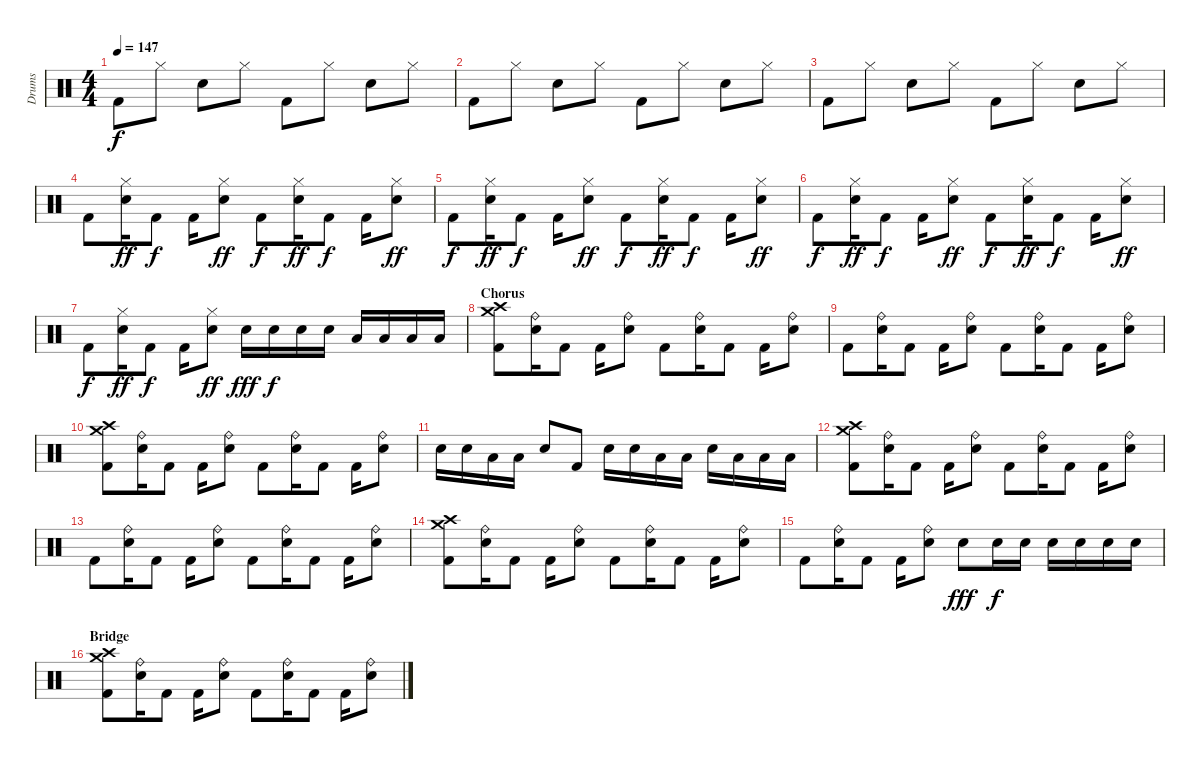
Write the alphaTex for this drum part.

\track ("Drums" "Drums") {instrument percussion}
\staff {score}
\articulation defaults
\ts (4 4)
\tempo 147
\clef neutral
\ks c "Kick (hit) 2".8{dy f} "Hi-Hat (closed)".8 "Electric Snare (hit)".8 "Hi-Hat (closed)".8 "Kick (hit) 2".8 "Hi-Hat (closed)".8 "Electric Snare (hit)".8 "Hi-Hat (closed)".8
|
"Kick (hit) 2".8 "Hi-Hat (closed)".8 "Electric Snare (hit)".8 "Hi-Hat (closed)".8 "Kick (hit) 2".8 "Hi-Hat (closed)".8 "Electric Snare (hit)".8 "Hi-Hat (closed)".8 |
"Kick (hit) 2".8 "Hi-Hat (closed)".8 "Electric Snare (hit)".8 "Hi-Hat (closed)".8 "Kick (hit) 2".8 "Hi-Hat (closed)".8 "Electric Snare (hit)".8 "Hi-Hat (closed)".8 |
"Kick (hit) 2".8 ("Hi-Hat (closed)" "Electric Snare (hit)").16{dy ff} "Kick (hit) 2".8{dy f} "Kick (hit) 2".16 ("Hi-Hat (closed)" "Electric Snare (hit)").8{dy ff} "Kick (hit) 2".8{dy f} ("Hi-Hat (closed)" "Electric Snare (hit)").16{dy ff} "Kick (hit) 2".8{dy f} "Kick (hit) 2".16 ("Hi-Hat (closed)" "Electric Snare (hit)").8{dy ff} |
"Kick (hit) 2".8{dy f} ("Hi-Hat (closed)" "Electric Snare (hit)").16{dy ff} "Kick (hit) 2".8{dy f} "Kick (hit) 2".16 ("Hi-Hat (closed)" "Electric Snare (hit)").8{dy ff} "Kick (hit) 2".8{dy f} ("Hi-Hat (closed)" "Electric Snare (hit)").16{dy ff} "Kick (hit) 2".8{dy f} "Kick (hit) 2".16 ("Hi-Hat (closed)" "Electric Snare (hit)").8{dy ff} |
"Kick (hit) 2".8{dy f} ("Hi-Hat (closed)" "Electric Snare (hit)").16{dy ff} "Kick (hit) 2".8{dy f} "Kick (hit) 2".16 ("Hi-Hat (closed)" "Electric Snare (hit)").8{dy ff} "Kick (hit) 2".8{dy f} ("Hi-Hat (closed)" "Electric Snare (hit)").16{dy ff} "Kick (hit) 2".8{dy f} "Kick (hit) 2".16 ("Hi-Hat (closed)" "Electric Snare (hit)").8{dy ff} |
"Kick (hit) 2".8{dy f} ("Hi-Hat (closed)" "Electric Snare (hit)").16{dy ff} "Kick (hit) 2".8{dy f} "Kick (hit) 2".16 ("Hi-Hat (closed)" "Electric Snare (hit)").8{dy ff} "Electric Snare (hit)".16{dy fff} "Electric Snare (hit)".16{dy f} "Electric Snare (hit)".16 "Electric Snare (hit)".16 "Low Tom (hit)".16 "Low Tom (hit)".16 "Low Tom (hit)".16 "Low Tom (hit)".16 |
\section ("" "Chorus")
("Crash high (hit)" "Crash medium (hit)" "Kick (hit) 2").8 ("Ride (bell)" "Electric Snare (hit)").16 "Kick (hit) 2".8 "Kick (hit) 2".16 ("Ride (bell)" "Electric Snare (hit)").8 "Kick (hit) 2".8 ("Ride (bell)" "Electric Snare (hit)").16 "Kick (hit) 2".8 "Kick (hit) 2".16 ("Ride (bell)" "Electric Snare (hit)").8 |
"Kick (hit) 2".8 ("Ride (bell)" "Electric Snare (hit)").16 "Kick (hit) 2".8 "Kick (hit) 2".16 ("Ride (bell)" "Electric Snare (hit)").8 "Kick (hit) 2".8 ("Ride (bell)" "Electric Snare (hit)").16 "Kick (hit) 2".8 "Kick (hit) 2".16 ("Ride (bell)" "Electric Snare (hit)").8 |
("Crash high (hit)" "Crash medium (hit)" "Kick (hit) 2").8 ("Ride (bell)" "Electric Snare (hit)").16 "Kick (hit) 2".8 "Kick (hit) 2".16 ("Ride (bell)" "Electric Snare (hit)").8 "Kick (hit) 2".8 ("Ride (bell)" "Electric Snare (hit)").16 "Kick (hit) 2".8 "Kick (hit) 2".16 ("Ride (bell)" "Electric Snare (hit)").8 |
"Electric Snare (hit)".16 "Electric Snare (hit)".16 "Low Tom (hit)".16 "Low Tom (hit)".16 "Electric Snare (hit)".8 "Kick (hit) 2".8 "Electric Snare (hit)".16 "Electric Snare (hit)".16 "Low Tom (hit)".16 "Low Tom (hit)".16 "Electric Snare (hit)".16 "Low Tom (hit)".16 "Low Tom (hit)".16 "Low Tom (hit)".16 |
("Crash high (hit)" "Crash medium (hit)" "Kick (hit) 2").8 ("Ride (bell)" "Electric Snare (hit)").16 "Kick (hit) 2".8 "Kick (hit) 2".16 ("Ride (bell)" "Electric Snare (hit)").8 "Kick (hit) 2".8 ("Ride (bell)" "Electric Snare (hit)").16 "Kick (hit) 2".8 "Kick (hit) 2".16 ("Ride (bell)" "Electric Snare (hit)").8 |
"Kick (hit) 2".8 ("Ride (bell)" "Electric Snare (hit)").16 "Kick (hit) 2".8 "Kick (hit) 2".16 ("Ride (bell)" "Electric Snare (hit)").8 "Kick (hit) 2".8 ("Ride (bell)" "Electric Snare (hit)").16 "Kick (hit) 2".8 "Kick (hit) 2".16 ("Ride (bell)" "Electric Snare (hit)").8 |
("Crash high (hit)" "Crash medium (hit)" "Kick (hit) 2").8 ("Ride (bell)" "Electric Snare (hit)").16 "Kick (hit) 2".8 "Kick (hit) 2".16 ("Ride (bell)" "Electric Snare (hit)").8 "Kick (hit) 2".8 ("Ride (bell)" "Electric Snare (hit)").16 "Kick (hit) 2".8 "Kick (hit) 2".16 ("Ride (bell)" "Electric Snare (hit)").8 |
"Kick (hit) 2".8 ("Ride (bell)" "Electric Snare (hit)").16 "Kick (hit) 2".8 "Kick (hit) 2".16 ("Ride (bell)" "Electric Snare (hit)").8 "Electric Snare (hit)".8{dy fff} "Electric Snare (hit)".16{dy f} "Electric Snare (hit)".16 "Electric Snare (hit)".16 "Electric Snare (hit)".16 "Electric Snare (hit)".16 "Electric Snare (hit)".16 |
\section ("" "Bridge")
("Crash high (hit)" "Crash medium (hit)" "Kick (hit) 2").8 ("Ride (bell)" "Electric Snare (hit)").16 "Kick (hit) 2".8 "Kick (hit) 2".16 ("Ride (bell)" "Electric Snare (hit)").8 "Kick (hit) 2".8 ("Ride (bell)" "Electric Snare (hit)").16 "Kick (hit) 2".8 "Kick (hit) 2".16 ("Ride (bell)" "Electric Snare (hit)").8
